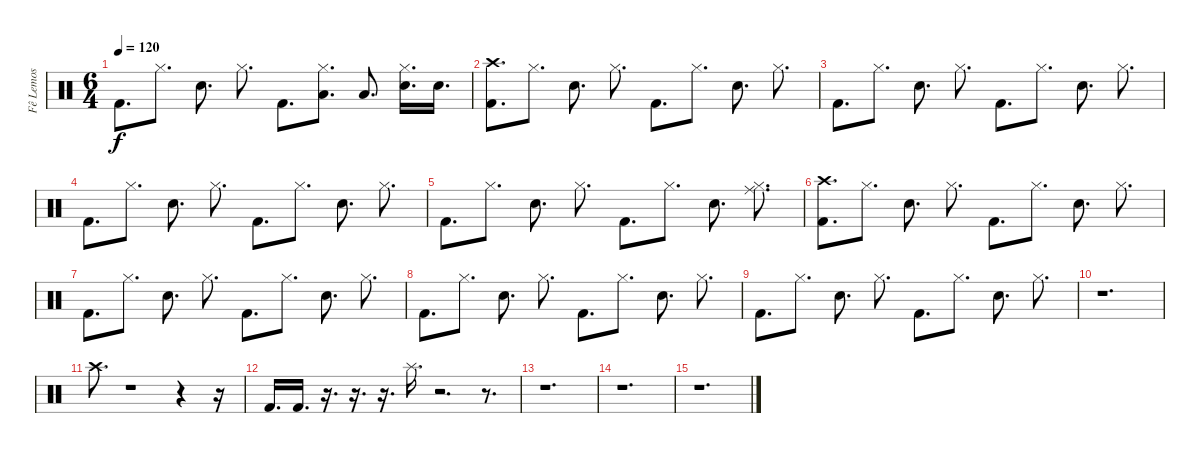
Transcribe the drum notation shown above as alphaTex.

\track ("Fê Lemos" "Fê Lemos") {instrument percussion}
\staff {score}
\articulation defaults
\ts (6 4)
\tempo 120
\clef neutral
\ks c "Kick (hit) 2".8{d dy f} "Hi-Hat (closed)".8{d} "Electric Snare (hit)".8{d} "Hi-Hat (closed)".8{d} "Kick (hit) 2".8{d}
("Low Tom (hit)" "Hi-Hat (closed)").8{d} "Low Tom (hit)".8{d} ("Electric Snare (hit)" "Hi-Hat (closed)").16{d} "Electric Snare (hit)".16{d} |
("Crash high (hit)" "Kick (hit) 2").8{d} "Hi-Hat (closed)".8{d} "Electric Snare (hit)".8{d} "Hi-Hat (closed)".8{d} "Kick (hit) 2".8{d} "Hi-Hat (closed)".8{d} "Electric Snare (hit)".8{d} "Hi-Hat (closed)".8{d} |
"Kick (hit) 2".8{d} "Hi-Hat (closed)".8{d} "Electric Snare (hit)".8{d} "Hi-Hat (closed)".8{d} "Kick (hit) 2".8{d} "Hi-Hat (closed)".8{d} "Electric Snare (hit)".8{d} "Hi-Hat (closed)".8{d} |
"Kick (hit) 2".8{d} "Hi-Hat (closed)".8{d} "Electric Snare (hit)".8{d} "Hi-Hat (closed)".8{d} "Kick (hit) 2".8{d} "Hi-Hat (closed)".8{d} "Electric Snare (hit)".8{d} "Hi-Hat (closed)".8{d} |
"Kick (hit) 2".8{d} "Hi-Hat (closed)".8{d} "Electric Snare (hit)".8{d} "Hi-Hat (closed)".8{d} "Kick (hit) 2".8{d} "Hi-Hat (closed)".8{d} "Electric Snare (hit)".8{d} ("Ride (middle)" "Hi-Hat (closed)").8{d} |
("Crash high (hit)" "Kick (hit) 2").8{d} "Hi-Hat (closed)".8{d} "Electric Snare (hit)".8{d} "Hi-Hat (closed)".8{d} "Kick (hit) 2".8{d} "Hi-Hat (closed)".8{d} "Electric Snare (hit)".8{d} "Hi-Hat (closed)".8{d} |
"Kick (hit) 2".8{d} "Hi-Hat (closed)".8{d} "Electric Snare (hit)".8{d} "Hi-Hat (closed)".8{d} "Kick (hit) 2".8{d} "Hi-Hat (closed)".8{d} "Electric Snare (hit)".8{d} "Hi-Hat (closed)".8{d} |
"Kick (hit) 2".8{d} "Hi-Hat (closed)".8{d} "Electric Snare (hit)".8{d} "Hi-Hat (closed)".8{d} "Kick (hit) 2".8{d} "Hi-Hat (closed)".8{d} "Electric Snare (hit)".8{d} "Hi-Hat (closed)".8{d} |
"Kick (hit) 2".8{d} "Hi-Hat (closed)".8{d} "Electric Snare (hit)".8{d} "Hi-Hat (closed)".8{d} "Kick (hit) 2".8{d} "Hi-Hat (closed)".8{d} "Electric Snare (hit)".8{d} "Hi-Hat (closed)".8{d} |
r.1{d} |
"Crash high (hit)".8{d} r.1 r.4 r.16 |
"Kick (hit) 2".16{d} "Kick (hit) 2".16{d} r.16{d} r.16{d} r.16{d} "Splash (hit)".16{d} r.2{d} r.8{d} |
r.1{d} |
r.1{d} |
r.1{d}
